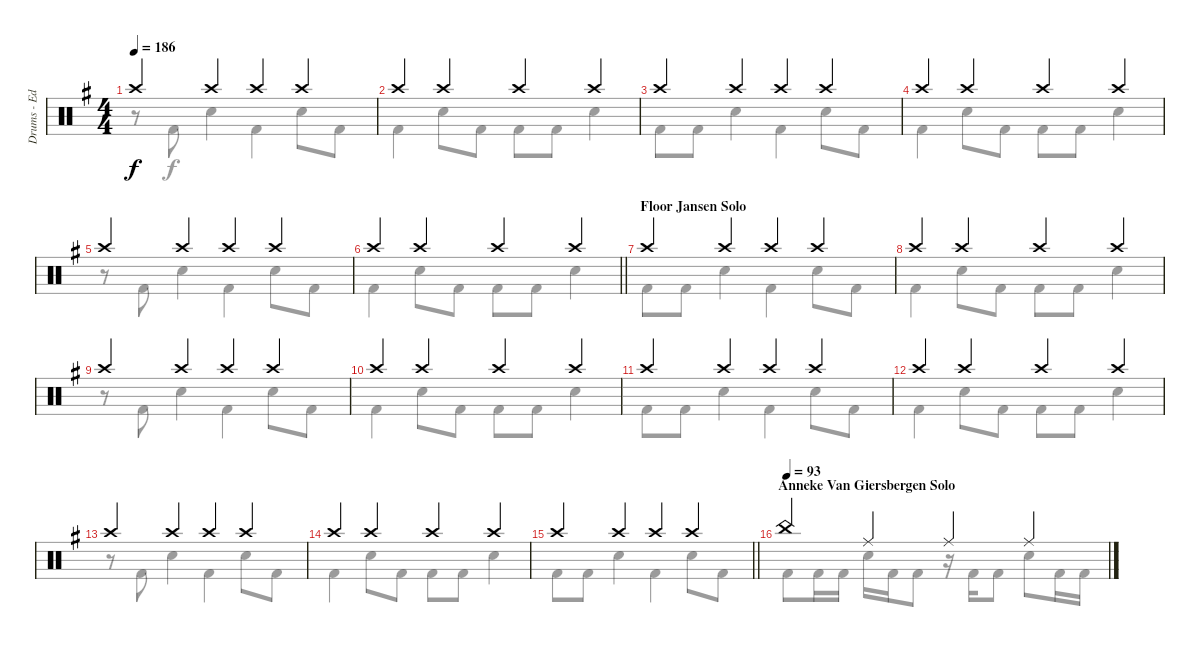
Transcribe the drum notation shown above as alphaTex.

\track ("Drums - Ed Warby" "Drums - Ed") {instrument percussion}
\staff {score}
\articulation defaults
\voice
\ts (4 4)
\tempo 186
\clef neutral
\ks eminor "Crash high (hit)".4{dy f} "Crash high (hit)".4 "Crash high (hit)".4 "Crash high (hit)".4
|
"Crash high (hit)".4 "Crash high (hit)".4 "Crash high (hit)".4 "Crash high (hit)".4 |
"Crash high (hit)".4 "Crash high (hit)".4 "Crash high (hit)".4 "Crash high (hit)".4 |
"Crash high (hit)".4 "Crash high (hit)".4 "Crash high (hit)".4 "Crash high (hit)".4 |
"Crash high (hit)".4 "Crash high (hit)".4 "Crash high (hit)".4 "Crash high (hit)".4 |
\barLineRight lightlight "Crash high (hit)".4 "Crash high (hit)".4 "Crash high (hit)".4 "Crash high (hit)".4
|
\section ("" "Floor Jansen Solo")
"Crash high (hit)".4 "Crash high (hit)".4 "Crash high (hit)".4 "Crash high (hit)".4 |
"Crash high (hit)".4 "Crash high (hit)".4 "Crash high (hit)".4 "Crash high (hit)".4 |
"Crash high (hit)".4 "Crash high (hit)".4 "Crash high (hit)".4 "Crash high (hit)".4 |
"Crash high (hit)".4 "Crash high (hit)".4 "Crash high (hit)".4 "Crash high (hit)".4 |
"Crash high (hit)".4 "Crash high (hit)".4 "Crash high (hit)".4 "Crash high (hit)".4 |
"Crash high (hit)".4 "Crash high (hit)".4 "Crash high (hit)".4 "Crash high (hit)".4 |
"Crash high (hit)".4 "Crash high (hit)".4 "Crash high (hit)".4 "Crash high (hit)".4 |
"Crash high (hit)".4 "Crash high (hit)".4 "Crash high (hit)".4 "Crash high (hit)".4 |
\barLineRight lightlight "Crash high (hit)".4 "Crash high (hit)".4 "Crash high (hit)".4 "Crash high (hit)".4
|
\section ("" "Anneke Van Giersbergen Solo")
\tempo (93)
"China (hit)".4 "Ride (middle)".4 "Ride (middle)".4 "Ride (middle)".4
\voice
\clef neutral
\ottava regular
\simile none
\ks eminor
r.8{dy f} "Kick (hit) 2".8 "Snare (hit) 2".4 "Kick (hit) 2".4 "Snare (hit) 2".8 "Kick (hit) 2".8 |
"Kick (hit) 2".4 "Snare (hit) 2".8 "Kick (hit) 2".8 "Kick (hit) 2".8 "Kick (hit) 2".8 "Snare (hit) 2".4 |
"Kick (hit) 2".8 "Kick (hit) 2".8 "Snare (hit) 2".4 "Kick (hit) 2".4 "Snare (hit) 2".8 "Kick (hit) 2".8 |
"Kick (hit) 2".4 "Snare (hit) 2".8 "Kick (hit) 2".8 "Kick (hit) 2".8 "Kick (hit) 2".8 "Snare (hit) 2".4 |
r.8 "Kick (hit) 2".8 "Snare (hit) 2".4 "Kick (hit) 2".4 "Snare (hit) 2".8 "Kick (hit) 2".8 |
\barLineRight lightlight "Kick (hit) 2".4 "Snare (hit) 2".8 "Kick (hit) 2".8 "Kick (hit) 2".8 "Kick (hit) 2".8 "Snare (hit) 2".4
|
"Kick (hit) 2".8 "Kick (hit) 2".8 "Snare (hit) 2".4 "Kick (hit) 2".4 "Snare (hit) 2".8 "Kick (hit) 2".8 |
"Kick (hit) 2".4 "Snare (hit) 2".8 "Kick (hit) 2".8 "Kick (hit) 2".8 "Kick (hit) 2".8 "Snare (hit) 2".4 |
r.8 "Kick (hit) 2".8 "Snare (hit) 2".4 "Kick (hit) 2".4 "Snare (hit) 2".8 "Kick (hit) 2".8 |
"Kick (hit) 2".4 "Snare (hit) 2".8 "Kick (hit) 2".8 "Kick (hit) 2".8 "Kick (hit) 2".8 "Snare (hit) 2".4 |
"Kick (hit) 2".8 "Kick (hit) 2".8 "Snare (hit) 2".4 "Kick (hit) 2".4 "Snare (hit) 2".8 "Kick (hit) 2".8 |
"Kick (hit) 2".4 "Snare (hit) 2".8 "Kick (hit) 2".8 "Kick (hit) 2".8 "Kick (hit) 2".8 "Snare (hit) 2".4 |
r.8 "Kick (hit) 2".8 "Snare (hit) 2".4 "Kick (hit) 2".4 "Snare (hit) 2".8 "Kick (hit) 2".8 |
"Kick (hit) 2".4 "Snare (hit) 2".8 "Kick (hit) 2".8 "Kick (hit) 2".8 "Kick (hit) 2".8 "Snare (hit) 2".4 |
\barLineRight lightlight "Kick (hit) 2".8 "Kick (hit) 2".8 "Snare (hit) 2".4 "Kick (hit) 2".4 "Snare (hit) 2".8 "Kick (hit) 2".8
|
"Kick (hit) 2".8 "Kick (hit) 2".16 "Kick (hit) 2".16 "Snare (hit) 2".16 "Kick (hit) 2".16 "Kick (hit) 2".8 r.16 "Kick (hit) 2".16 "Kick (hit) 2".8 "Snare (hit) 2".8 "Kick (hit) 2".16 "Kick (hit) 2".16
